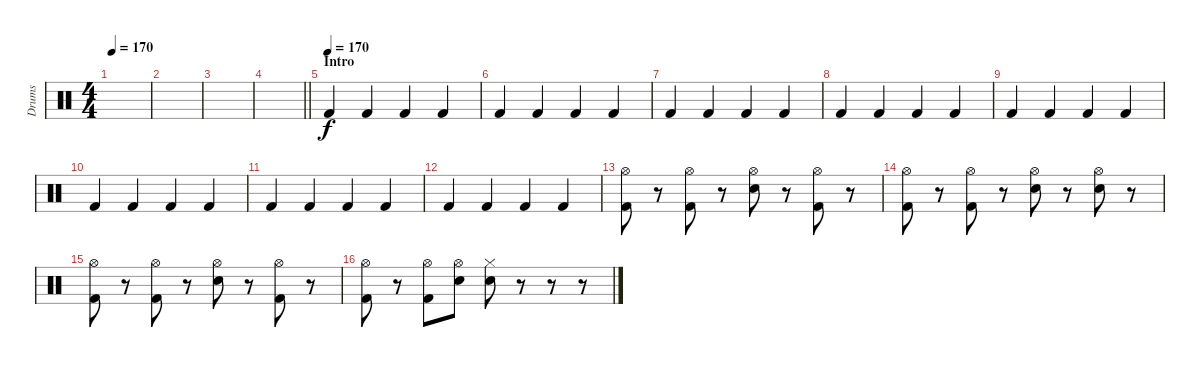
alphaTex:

\track ("Drums" "Drums") {instrument percussion}
\staff {score}
\articulation defaults
\ts (4 4)
\tempo 170
\clef neutral
\ks c
|
|
|
\barLineRight lightlight
|
\section ("" "Intro")
\tempo (170)
"Kick (hit) 2".4 "Kick (hit) 2".4 "Kick (hit) 2".4 "Kick (hit) 2".4 |
"Kick (hit) 2".4 "Kick (hit) 2".4 "Kick (hit) 2".4 "Kick (hit) 2".4 |
"Kick (hit) 2".4 "Kick (hit) 2".4 "Kick (hit) 2".4 "Kick (hit) 2".4 |
"Kick (hit) 2".4 "Kick (hit) 2".4 "Kick (hit) 2".4 "Kick (hit) 2".4 |
"Kick (hit) 2".4 "Kick (hit) 2".4 "Kick (hit) 2".4 "Kick (hit) 2".4 |
"Kick (hit) 2".4 "Kick (hit) 2".4 "Kick (hit) 2".4 "Kick (hit) 2".4 |
"Kick (hit) 2".4 "Kick (hit) 2".4 "Kick (hit) 2".4 "Kick (hit) 2".4 |
"Kick (hit) 2".4 "Kick (hit) 2".4 "Kick (hit) 2".4 "Kick (hit) 2".4 |
("Hi-Hat (open)" "Kick (hit) 2").8 r.8 ("Hi-Hat (open)" "Kick (hit) 2").8 r.8 ("Hi-Hat (open)" "Electric Snare (hit)").8 r.8 ("Hi-Hat (open)" "Kick (hit) 2").8 r.8 |
("Hi-Hat (open)" "Kick (hit) 2").8 r.8 ("Hi-Hat (open)" "Kick (hit) 2").8 r.8 ("Hi-Hat (open)" "Electric Snare (hit)").8 r.8 ("Hi-Hat (open)" "Electric Snare (hit)").8 r.8 |
("Hi-Hat (open)" "Kick (hit) 2").8 r.8 ("Hi-Hat (open)" "Kick (hit) 2").8 r.8 ("Hi-Hat (open)" "Electric Snare (hit)").8 r.8 ("Hi-Hat (open)" "Kick (hit) 2").8 r.8 |
("Hi-Hat (open)" "Kick (hit) 2").8 r.8 ("Hi-Hat (open)" "Kick (hit) 2").8 ("Hi-Hat (open)" "Electric Snare (hit)").8 ("Hi-Hat (closed)" "Electric Snare (hit)").8 r.8 r.8 r.8
